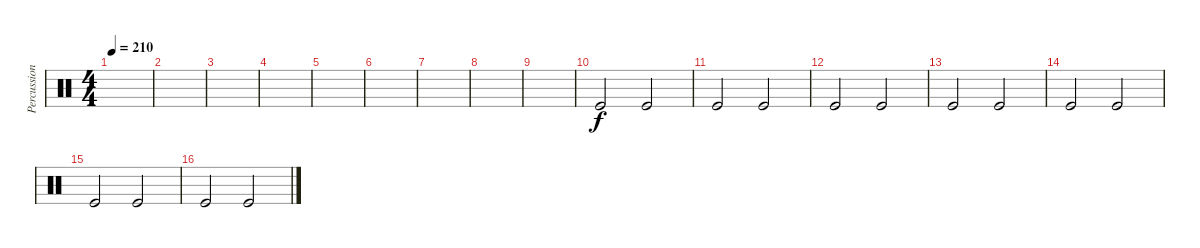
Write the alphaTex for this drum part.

\track ("Percussion" "Percussion") {instrument percussion}
\staff {score}
\articulation defaults
\ts (4 4)
\tempo 210
\clef neutral
\ks c
|
|
|
|
|
|
|
|
|
"Kick (hit)".2 "Kick (hit)".2 |
"Kick (hit)".2 "Kick (hit)".2 |
"Kick (hit)".2 "Kick (hit)".2 |
"Kick (hit)".2 "Kick (hit)".2 |
"Kick (hit)".2 "Kick (hit)".2 |
"Kick (hit)".2 "Kick (hit)".2 |
"Kick (hit)".2 "Kick (hit)".2
